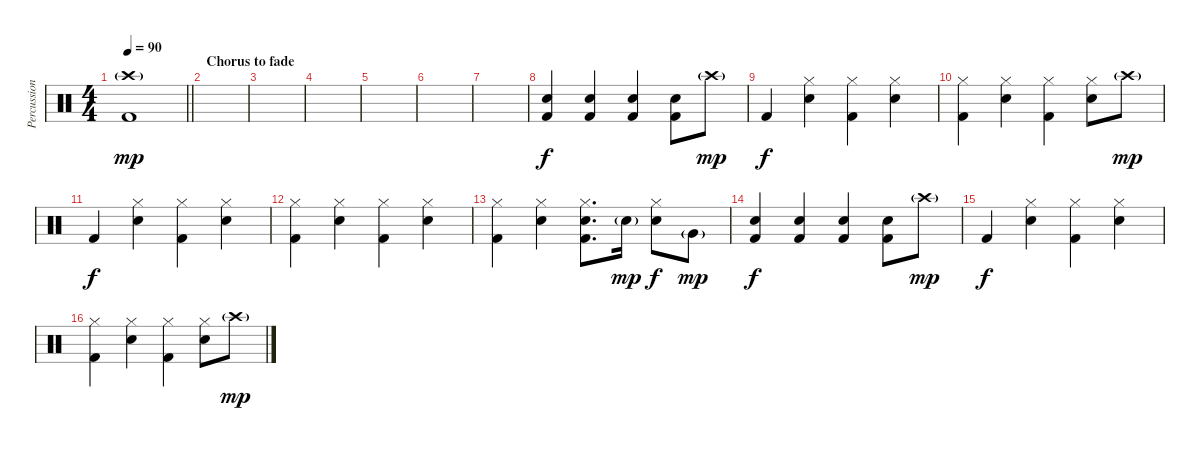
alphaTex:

\track ("Percussion" "Percussion") {instrument percussion}
\staff {score}
\articulation defaults
\ts (4 4)
\tempo 90
\clef neutral
\barLineRight lightlight
\ks c
("Crash high (hit)"{g} "Kick (hit) 2").1{dy mp} |
\section ("" "Chorus to fade")
|
|
|
|
|
|
("Snare (hit) 2" "Kick (hit) 2").4{dy f} ("Snare (hit) 2" "Kick (hit) 2").4 ("Snare (hit) 2" "Kick (hit) 2").4 ("Snare (hit) 2" "Kick (hit) 2").8 "Crash high (hit)"{g}.8{dy mp} |
"Kick (hit) 2".4{dy f} ("Hi-Hat (closed)" "Snare (hit) 2").4 ("Hi-Hat (closed)" "Kick (hit) 2").4 ("Hi-Hat (closed)" "Snare (hit) 2").4 |
("Hi-Hat (closed)" "Kick (hit) 2").4 ("Hi-Hat (closed)" "Snare (hit) 2").4 ("Hi-Hat (closed)" "Kick (hit) 2").4 ("Hi-Hat (closed)" "Snare (hit) 2").8 "Crash high (hit)"{g}.8{dy mp} |
"Kick (hit) 2".4{dy f} ("Hi-Hat (closed)" "Snare (hit) 2").4 ("Hi-Hat (closed)" "Kick (hit) 2").4 ("Hi-Hat (closed)" "Snare (hit) 2").4 |
("Hi-Hat (closed)" "Kick (hit) 2").4 ("Hi-Hat (closed)" "Snare (hit) 2").4 ("Hi-Hat (closed)" "Kick (hit) 2").4 ("Hi-Hat (closed)" "Snare (hit) 2").4 |
("Hi-Hat (closed)" "Kick (hit) 2").4 ("Hi-Hat (closed)" "Snare (hit) 2").4 ("Hi-Hat (closed)" "Snare (hit) 2" "Kick (hit) 2").8{d} "Snare (hit) 2"{g}.16{dy mp} ("Hi-Hat (closed)" "Snare (hit) 2").8{dy f} "Very Low Tom (hit)"{g}.8{dy mp} |
("Snare (hit) 2" "Kick (hit) 2").4{dy f} ("Snare (hit) 2" "Kick (hit) 2").4 ("Snare (hit) 2" "Kick (hit) 2").4 ("Snare (hit) 2" "Kick (hit) 2").8 "Crash high (hit)"{g}.8{dy mp} |
"Kick (hit) 2".4{dy f} ("Hi-Hat (closed)" "Snare (hit) 2").4 ("Hi-Hat (closed)" "Kick (hit) 2").4 ("Hi-Hat (closed)" "Snare (hit) 2").4 |
("Hi-Hat (closed)" "Kick (hit) 2").4 ("Hi-Hat (closed)" "Snare (hit) 2").4 ("Hi-Hat (closed)" "Kick (hit) 2").4 ("Hi-Hat (closed)" "Snare (hit) 2").8 "Crash high (hit)"{g}.8{dy mp}
